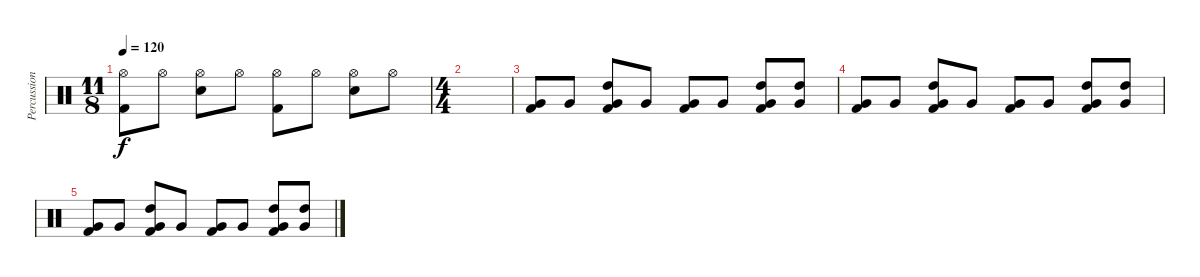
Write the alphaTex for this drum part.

\track ("Percussion" "Percussion") {instrument percussion}
\staff {score}
\articulation defaults
\ts (11 8)
\tempo 120
\clef neutral
\ks c
("Hi-Hat (open)" "Kick (hit) 2").8{dy f} "Hi-Hat (open)".8 ("Hi-Hat (open)" "Electric Snare (hit)").8 "Hi-Hat (open)".8 ("Hi-Hat (open)" "Kick (hit) 2").8 "Hi-Hat (open)".8 ("Hi-Hat (open)" "Electric Snare (hit)").8 "Hi-Hat (open)".8 |
\ts (4 4)
|
("Very Low Tom (hit)" "Kick (hit) 2").8 "Very Low Tom (hit)".8 ("High Tom (hit)" "Very Low Tom (hit)" "Kick (hit) 2").8 "Very Low Tom (hit)".8 ("Very Low Tom (hit)" "Kick (hit) 2").8 "Very Low Tom (hit)".8 ("High Tom (hit)" "Very Low Tom (hit)" "Kick (hit) 2").8 ("High Tom (hit)" "Very Low Tom (hit)").8 |
("Very Low Tom (hit)" "Kick (hit) 2").8 "Very Low Tom (hit)".8 ("High Tom (hit)" "Very Low Tom (hit)" "Kick (hit) 2").8 "Very Low Tom (hit)".8 ("Very Low Tom (hit)" "Kick (hit) 2").8 "Very Low Tom (hit)".8 ("High Tom (hit)" "Very Low Tom (hit)" "Kick (hit) 2").8 ("High Tom (hit)" "Very Low Tom (hit)").8 |
("Very Low Tom (hit)" "Kick (hit) 2").8 "Very Low Tom (hit)".8 ("High Tom (hit)" "Very Low Tom (hit)" "Kick (hit) 2").8 "Very Low Tom (hit)".8 ("Very Low Tom (hit)" "Kick (hit) 2").8 "Very Low Tom (hit)".8 ("High Tom (hit)" "Very Low Tom (hit)" "Kick (hit) 2").8 ("High Tom (hit)" "Very Low Tom (hit)").8
